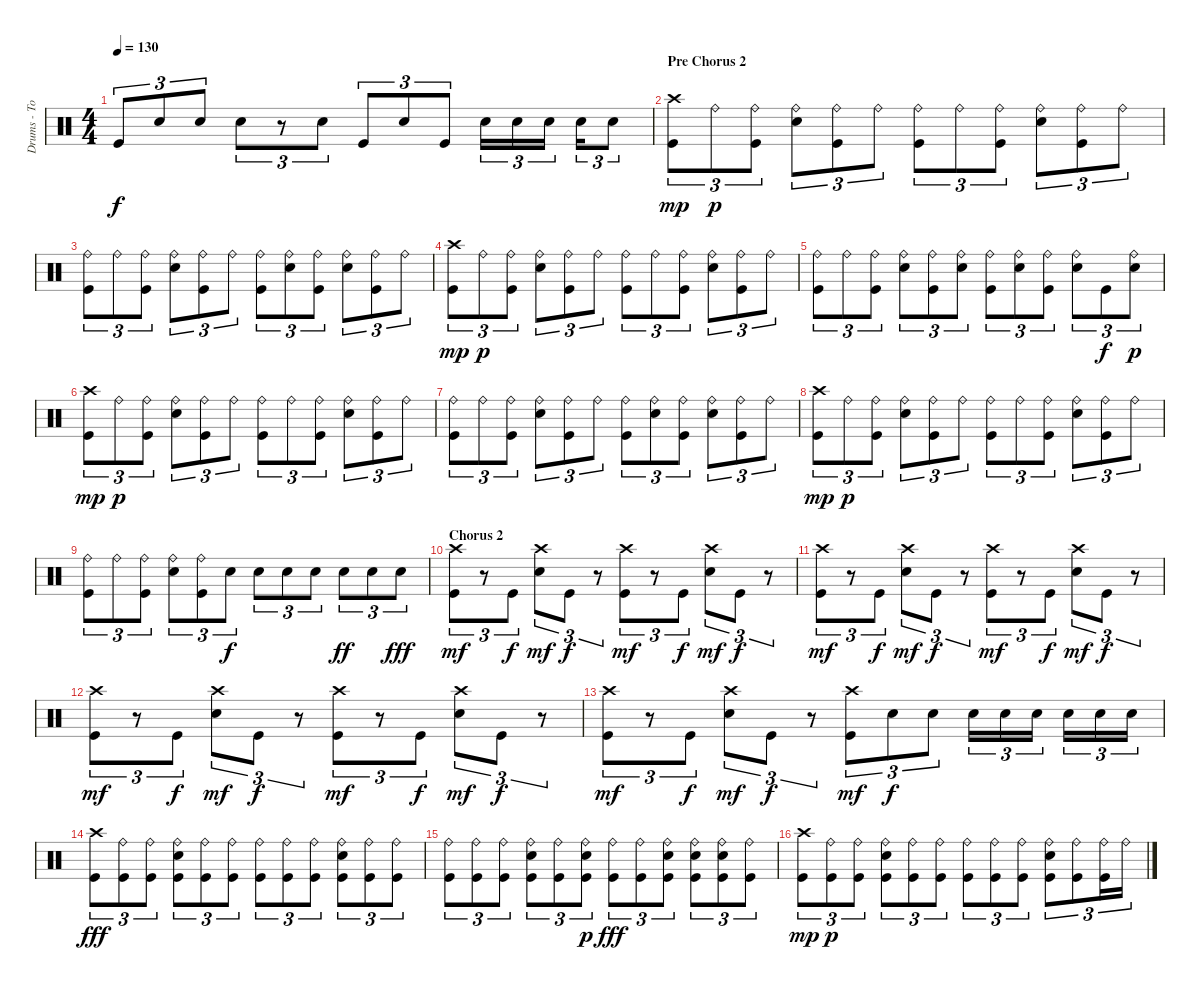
\track ("Drums - Tomas" "Drums - To") {instrument percussion}
\staff {score}
\articulation defaults
\ts (4 4)
\tempo 130
\clef neutral
\ks c "Kick (hit)".8{tu (3 2) dy f} "Electric Snare (hit)".8{tu (3 2)} "Electric Snare (hit)".8{tu (3 2)} "Electric Snare (hit)".8{tu (3 2)}
r.8{tu (3 2)} "Electric Snare (hit)".8{tu (3 2)} "Kick (hit)".8{tu (3 2)} "Electric Snare (hit)".8{tu (3 2)} "Kick (hit)".8{tu (3 2)} "Electric Snare (hit)".16{tu (3 2)} "Electric Snare (hit)".16{tu (3 2)} "Electric Snare (hit)".16{tu (3 2)} "Electric Snare (hit)".16{tu (3 2)} "Electric Snare (hit)".8{tu (3 2)} |
\section ("" "Pre Chorus 2")
("Crash high (hit)" "Kick (hit)").8{tu (3 2) dy mp} "Ride (bell)".8{tu (3 2) dy p} ("Ride (bell)" "Kick (hit)").8{tu (3 2)} ("Ride (bell)" "Electric Snare (hit)").8{tu (3 2)} ("Ride (bell)" "Kick (hit)").8{tu (3 2)} "Ride (bell)".8{tu (3 2)} ("Ride (bell)" "Kick (hit)").8{tu (3 2)} "Ride (bell)".8{tu (3 2)} ("Ride (bell)" "Kick (hit)").8{tu (3 2)} ("Ride (bell)" "Electric Snare (hit)").8{tu (3 2)} ("Ride (bell)" "Kick (hit)").8{tu (3 2)} "Ride (bell)".8{tu (3 2)} |
("Ride (bell)" "Kick (hit)").8{tu (3 2)} "Ride (bell)".8{tu (3 2)} ("Ride (bell)" "Kick (hit)").8{tu (3 2)} ("Ride (bell)" "Electric Snare (hit)").8{tu (3 2)} ("Ride (bell)" "Kick (hit)").8{tu (3 2)} "Ride (bell)".8{tu (3 2)} ("Ride (bell)" "Kick (hit)").8{tu (3 2)} ("Ride (bell)" "Electric Snare (hit)").8{tu (3 2)} ("Ride (bell)" "Kick (hit)").8{tu (3 2)} ("Ride (bell)" "Electric Snare (hit)").8{tu (3 2)} ("Ride (bell)" "Kick (hit)").8{tu (3 2)} "Ride (bell)".8{tu (3 2)} |
("Crash high (hit)" "Kick (hit)").8{tu (3 2) dy mp} "Ride (bell)".8{tu (3 2) dy p} ("Ride (bell)" "Kick (hit)").8{tu (3 2)} ("Ride (bell)" "Electric Snare (hit)").8{tu (3 2)} ("Ride (bell)" "Kick (hit)").8{tu (3 2)} "Ride (bell)".8{tu (3 2)} ("Ride (bell)" "Kick (hit)").8{tu (3 2)} "Ride (bell)".8{tu (3 2)} ("Ride (bell)" "Kick (hit)").8{tu (3 2)} ("Ride (bell)" "Electric Snare (hit)").8{tu (3 2)} ("Ride (bell)" "Kick (hit)").8{tu (3 2)} "Ride (bell)".8{tu (3 2)} |
("Ride (bell)" "Kick (hit)").8{tu (3 2)} "Ride (bell)".8{tu (3 2)} ("Ride (bell)" "Kick (hit)").8{tu (3 2)} ("Ride (bell)" "Electric Snare (hit)").8{tu (3 2)} ("Ride (bell)" "Kick (hit)").8{tu (3 2)} ("Ride (bell)" "Electric Snare (hit)").8{tu (3 2)} ("Ride (bell)" "Kick (hit)").8{tu (3 2)} ("Ride (bell)" "Electric Snare (hit)").8{tu (3 2)} ("Ride (bell)" "Kick (hit)").8{tu (3 2)} ("Ride (bell)" "Electric Snare (hit)").8{tu (3 2)} "Kick (hit)".8{tu (3 2) dy f} ("Ride (bell)" "Electric Snare (hit)").8{tu (3 2) dy p} |
("Crash high (hit)" "Kick (hit)").8{tu (3 2) dy mp} "Ride (bell)".8{tu (3 2) dy p} ("Ride (bell)" "Kick (hit)").8{tu (3 2)} ("Ride (bell)" "Electric Snare (hit)").8{tu (3 2)} ("Ride (bell)" "Kick (hit)").8{tu (3 2)} "Ride (bell)".8{tu (3 2)} ("Ride (bell)" "Kick (hit)").8{tu (3 2)} "Ride (bell)".8{tu (3 2)} ("Ride (bell)" "Kick (hit)").8{tu (3 2)} ("Ride (bell)" "Electric Snare (hit)").8{tu (3 2)} ("Ride (bell)" "Kick (hit)").8{tu (3 2)} "Ride (bell)".8{tu (3 2)} |
("Ride (bell)" "Kick (hit)").8{tu (3 2)} "Ride (bell)".8{tu (3 2)} ("Ride (bell)" "Kick (hit)").8{tu (3 2)} ("Ride (bell)" "Electric Snare (hit)").8{tu (3 2)} ("Ride (bell)" "Kick (hit)").8{tu (3 2)} "Ride (bell)".8{tu (3 2)} ("Ride (bell)" "Kick (hit)").8{tu (3 2)} ("Ride (bell)" "Electric Snare (hit)").8{tu (3 2)} ("Ride (bell)" "Kick (hit)").8{tu (3 2)} ("Ride (bell)" "Electric Snare (hit)").8{tu (3 2)} ("Ride (bell)" "Kick (hit)").8{tu (3 2)} "Ride (bell)".8{tu (3 2)} |
("Crash high (hit)" "Kick (hit)").8{tu (3 2) dy mp} "Ride (bell)".8{tu (3 2) dy p} ("Ride (bell)" "Kick (hit)").8{tu (3 2)} ("Ride (bell)" "Electric Snare (hit)").8{tu (3 2)} ("Ride (bell)" "Kick (hit)").8{tu (3 2)} "Ride (bell)".8{tu (3 2)} ("Ride (bell)" "Kick (hit)").8{tu (3 2)} "Ride (bell)".8{tu (3 2)} ("Ride (bell)" "Kick (hit)").8{tu (3 2)} ("Ride (bell)" "Electric Snare (hit)").8{tu (3 2)} ("Ride (bell)" "Kick (hit)").8{tu (3 2)} "Ride (bell)".8{tu (3 2)} |
("Ride (bell)" "Kick (hit)").8{tu (3 2)} "Ride (bell)".8{tu (3 2)} ("Ride (bell)" "Kick (hit)").8{tu (3 2)} ("Ride (bell)" "Electric Snare (hit)").8{tu (3 2)} ("Ride (bell)" "Kick (hit)").8{tu (3 2)} "Electric Snare (hit)".8{tu (3 2) dy f} "Electric Snare (hit)".8{tu (3 2)} "Electric Snare (hit)".8{tu (3 2)} "Electric Snare (hit)".8{tu (3 2)} "Electric Snare (hit)".8{tu (3 2) dy ff} "Electric Snare (hit)".8{tu (3 2)} "Electric Snare (hit)".8{tu (3 2) dy fff} |
\section ("" "Chorus 2")
("Crash high (hit)" "Kick (hit)").8{tu (3 2) dy mf} r.8{tu (3 2)} "Kick (hit)".8{tu (3 2) dy f} ("Crash high (hit)" "Electric Snare (hit)").8{tu (3 2) dy mf} "Kick (hit)".8{tu (3 2) dy f} r.8{tu (3 2)} ("Crash high (hit)" "Kick (hit)").8{tu (3 2) dy mf} r.8{tu (3 2)} "Kick (hit)".8{tu (3 2) dy f} ("Crash high (hit)" "Electric Snare (hit)").8{tu (3 2) dy mf} "Kick (hit)".8{tu (3 2) dy f} r.8{tu (3 2)} |
("Crash high (hit)" "Kick (hit)").8{tu (3 2) dy mf} r.8{tu (3 2)} "Kick (hit)".8{tu (3 2) dy f} ("Crash high (hit)" "Electric Snare (hit)").8{tu (3 2) dy mf} "Kick (hit)".8{tu (3 2) dy f} r.8{tu (3 2)} ("Crash high (hit)" "Kick (hit)").8{tu (3 2) dy mf} r.8{tu (3 2)} "Kick (hit)".8{tu (3 2) dy f} ("Crash high (hit)" "Electric Snare (hit)").8{tu (3 2) dy mf} "Kick (hit)".8{tu (3 2) dy f} r.8{tu (3 2)} |
("Crash high (hit)" "Kick (hit)").8{tu (3 2) dy mf} r.8{tu (3 2)} "Kick (hit)".8{tu (3 2) dy f} ("Crash high (hit)" "Electric Snare (hit)").8{tu (3 2) dy mf} "Kick (hit)".8{tu (3 2) dy f} r.8{tu (3 2)} ("Crash high (hit)" "Kick (hit)").8{tu (3 2) dy mf} r.8{tu (3 2)} "Kick (hit)".8{tu (3 2) dy f} ("Crash high (hit)" "Electric Snare (hit)").8{tu (3 2) dy mf} "Kick (hit)".8{tu (3 2) dy f} r.8{tu (3 2)} |
("Crash high (hit)" "Kick (hit)").8{tu (3 2) dy mf} r.8{tu (3 2)} "Kick (hit)".8{tu (3 2) dy f} ("Crash high (hit)" "Electric Snare (hit)").8{tu (3 2) dy mf} "Kick (hit)".8{tu (3 2) dy f} r.8{tu (3 2)} ("Crash high (hit)" "Kick (hit)").8{tu (3 2) dy mf} "Electric Snare (hit)".8{tu (3 2) dy f} "Electric Snare (hit)".8{tu (3 2)} "Electric Snare (hit)".16{tu (3 2)} "Electric Snare (hit)".16{tu (3 2)} "Electric Snare (hit)".16{tu (3 2)} "Electric Snare (hit)".16{tu (3 2)} "Electric Snare (hit)".16{tu (3 2)} "Electric Snare (hit)".16{tu (3 2)} |
("Crash high (hit)" "Kick (hit)").8{tu (3 2) dy fff} ("Ride (bell)" "Kick (hit)").8{tu (3 2)} ("Ride (bell)" "Kick (hit)").8{tu (3 2)} ("Ride (bell)" "Electric Snare (hit)" "Kick (hit)").8{tu (3 2)} ("Ride (bell)" "Kick (hit)").8{tu (3 2)} ("Ride (bell)" "Kick (hit)").8{tu (3 2)} ("Ride (bell)" "Kick (hit)").8{tu (3 2)} ("Ride (bell)" "Kick (hit)").8{tu (3 2)} ("Ride (bell)" "Kick (hit)").8{tu (3 2)} ("Ride (bell)" "Electric Snare (hit)" "Kick (hit)").8{tu (3 2)} ("Ride (bell)" "Kick (hit)").8{tu (3 2)} ("Ride (bell)" "Kick (hit)").8{tu (3 2)} |
("Ride (bell)" "Kick (hit)").8{tu (3 2)} ("Ride (bell)" "Kick (hit)").8{tu (3 2)} ("Ride (bell)" "Kick (hit)").8{tu (3 2)} ("Ride (bell)" "Electric Snare (hit)" "Kick (hit)").8{tu (3 2)} ("Ride (bell)" "Kick (hit)").8{tu (3 2)} ("Ride (bell)" "Electric Snare (hit)" "Kick (hit)").8{tu (3 2) dy p} ("Ride (bell)" "Kick (hit)").8{tu (3 2) dy fff} ("Ride (bell)" "Kick (hit)").8{tu (3 2)} ("Ride (bell)" "Electric Snare (hit)" "Kick (hit)").8{tu (3 2)} ("Ride (bell)" "Electric Snare (hit)" "Kick (hit)").8{tu (3 2)} ("Ride (bell)" "Electric Snare (hit)" "Kick (hit)").8{tu (3 2)} ("Ride (bell)" "Kick (hit)").8{tu (3 2)} |
("Crash high (hit)" "Kick (hit)").8{tu (3 2) dy mp} ("Ride (bell)" "Kick (hit)").8{tu (3 2) dy p} ("Ride (bell)" "Kick (hit)").8{tu (3 2)} ("Ride (bell)" "Electric Snare (hit)" "Kick (hit)").8{tu (3 2)} ("Ride (bell)" "Kick (hit)").8{tu (3 2)} ("Ride (bell)" "Kick (hit)").8{tu (3 2)} ("Ride (bell)" "Kick (hit)").8{tu (3 2)} ("Ride (bell)" "Kick (hit)").8{tu (3 2)} ("Ride (bell)" "Kick (hit)").8{tu (3 2)} ("Ride (bell)" "Electric Snare (hit)" "Kick (hit)").8{tu (3 2)} ("Ride (bell)" "Kick (hit)").8{tu (3 2)} ("Ride (bell)" "Kick (hit)").16{tu (3 2)} "Ride (bell)".16{tu (3 2)}
